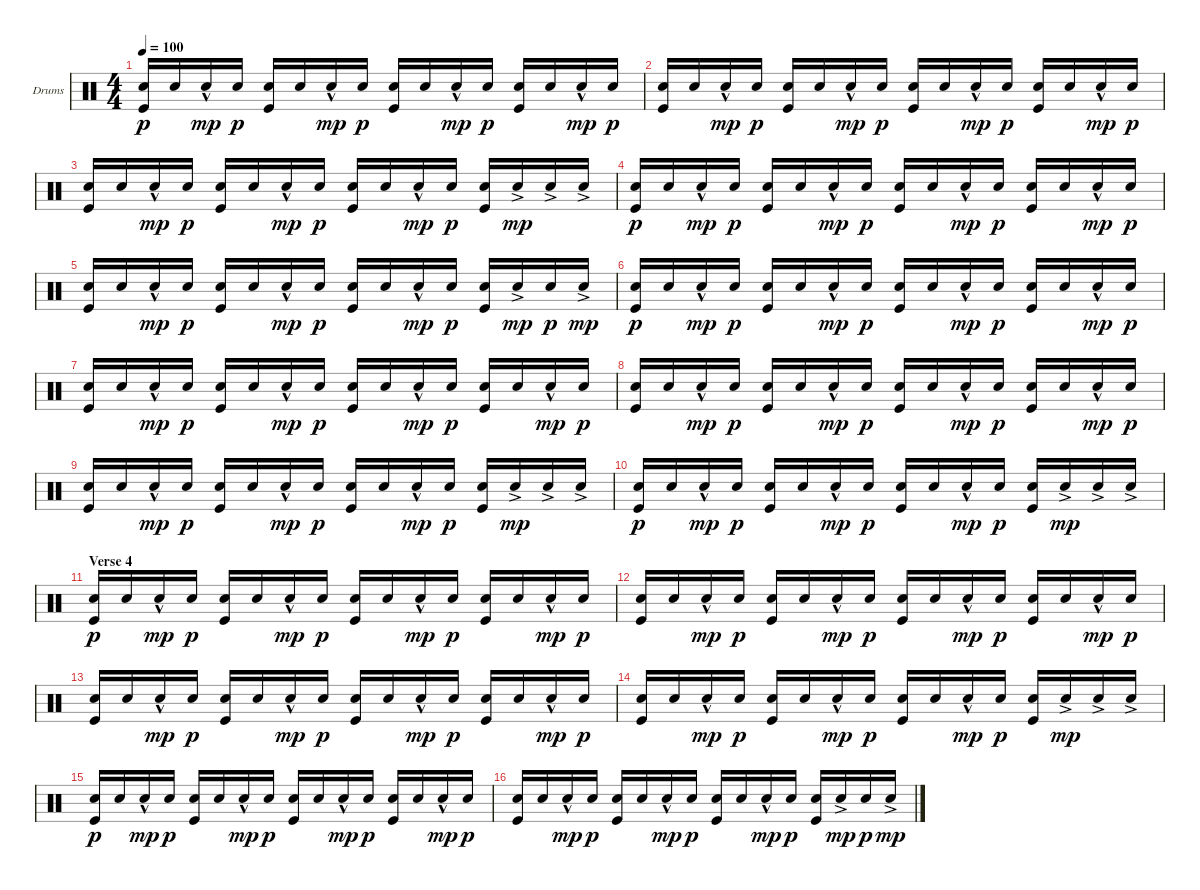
\defaultSystemsLayout 4
\bracketExtendMode groupsimilarinstruments
\firstSystemTrackNameOrientation horizontal
\otherSystemsTrackNameOrientation horizontal
\track ("Drumkit" "Drums") {instrument percussion}
\staff {score}
\articulation defaults
\ts (4 4)
\tempo 100
\clef neutral
\ks c
("Snare (hit) 2" "Kick (hit)").16{dy p} "Snare (hit) 2".16 "Snare (hit) 2"{hac}.16{dy mp} "Snare (hit) 2".16{dy p} ("Snare (hit) 2" "Kick (hit)").16 "Snare (hit) 2".16 "Snare (hit) 2"{hac}.16{dy mp} "Snare (hit) 2".16{dy p} ("Snare (hit) 2" "Kick (hit)").16 "Snare (hit) 2".16 "Snare (hit) 2"{hac}.16{dy mp} "Snare (hit) 2".16{dy p} ("Snare (hit) 2" "Kick (hit)").16 "Snare (hit) 2".16 "Snare (hit) 2"{hac}.16{dy mp} "Snare (hit) 2".16{dy p} |
("Snare (hit) 2" "Kick (hit)").16 "Snare (hit) 2".16 "Snare (hit) 2"{hac}.16{dy mp} "Snare (hit) 2".16{dy p} ("Snare (hit) 2" "Kick (hit)").16 "Snare (hit) 2".16 "Snare (hit) 2"{hac}.16{dy mp} "Snare (hit) 2".16{dy p} ("Snare (hit) 2" "Kick (hit)").16 "Snare (hit) 2".16 "Snare (hit) 2"{hac}.16{dy mp} "Snare (hit) 2".16{dy p} ("Snare (hit) 2" "Kick (hit)").16 "Snare (hit) 2".16 "Snare (hit) 2"{hac}.16{dy mp} "Snare (hit) 2".16{dy p} |
("Snare (hit) 2" "Kick (hit)").16 "Snare (hit) 2".16 "Snare (hit) 2"{hac}.16{dy mp} "Snare (hit) 2".16{dy p} ("Snare (hit) 2" "Kick (hit)").16 "Snare (hit) 2".16 "Snare (hit) 2"{hac}.16{dy mp} "Snare (hit) 2".16{dy p} ("Snare (hit) 2" "Kick (hit)").16 "Snare (hit) 2".16 "Snare (hit) 2"{hac}.16{dy mp} "Snare (hit) 2".16{dy p} ("Snare (hit) 2" "Kick (hit)").16 "Snare (hit) 2"{ac}.16{dy mp} "Snare (hit) 2"{ac}.16 "Snare (hit) 2"{ac}.16 |
("Snare (hit) 2" "Kick (hit)").16{dy p} "Snare (hit) 2".16 "Snare (hit) 2"{hac}.16{dy mp} "Snare (hit) 2".16{dy p} ("Snare (hit) 2" "Kick (hit)").16 "Snare (hit) 2".16 "Snare (hit) 2"{hac}.16{dy mp} "Snare (hit) 2".16{dy p} ("Snare (hit) 2" "Kick (hit)").16 "Snare (hit) 2".16 "Snare (hit) 2"{hac}.16{dy mp} "Snare (hit) 2".16{dy p} ("Snare (hit) 2" "Kick (hit)").16 "Snare (hit) 2".16 "Snare (hit) 2"{hac}.16{dy mp} "Snare (hit) 2".16{dy p} |
("Snare (hit) 2" "Kick (hit)").16 "Snare (hit) 2".16 "Snare (hit) 2"{hac}.16{dy mp} "Snare (hit) 2".16{dy p} ("Snare (hit) 2" "Kick (hit)").16 "Snare (hit) 2".16 "Snare (hit) 2"{hac}.16{dy mp} "Snare (hit) 2".16{dy p} ("Snare (hit) 2" "Kick (hit)").16 "Snare (hit) 2".16 "Snare (hit) 2"{hac}.16{dy mp} "Snare (hit) 2".16{dy p} ("Snare (hit) 2" "Kick (hit)").16 "Snare (hit) 2"{ac}.16{dy mp} "Snare (hit) 2".16{dy p} "Snare (hit) 2"{ac}.16{dy mp} |
("Snare (hit) 2" "Kick (hit)").16{dy p} "Snare (hit) 2".16 "Snare (hit) 2"{hac}.16{dy mp} "Snare (hit) 2".16{dy p} ("Snare (hit) 2" "Kick (hit)").16 "Snare (hit) 2".16 "Snare (hit) 2"{hac}.16{dy mp} "Snare (hit) 2".16{dy p} ("Snare (hit) 2" "Kick (hit)").16 "Snare (hit) 2".16 "Snare (hit) 2"{hac}.16{dy mp} "Snare (hit) 2".16{dy p} ("Snare (hit) 2" "Kick (hit)").16 "Snare (hit) 2".16 "Snare (hit) 2"{hac}.16{dy mp} "Snare (hit) 2".16{dy p} |
("Snare (hit) 2" "Kick (hit)").16 "Snare (hit) 2".16 "Snare (hit) 2"{hac}.16{dy mp} "Snare (hit) 2".16{dy p} ("Snare (hit) 2" "Kick (hit)").16 "Snare (hit) 2".16 "Snare (hit) 2"{hac}.16{dy mp} "Snare (hit) 2".16{dy p} ("Snare (hit) 2" "Kick (hit)").16 "Snare (hit) 2".16 "Snare (hit) 2"{hac}.16{dy mp} "Snare (hit) 2".16{dy p} ("Snare (hit) 2" "Kick (hit)").16 "Snare (hit) 2".16 "Snare (hit) 2"{hac}.16{dy mp} "Snare (hit) 2".16{dy p} |
("Snare (hit) 2" "Kick (hit)").16 "Snare (hit) 2".16 "Snare (hit) 2"{hac}.16{dy mp} "Snare (hit) 2".16{dy p} ("Snare (hit) 2" "Kick (hit)").16 "Snare (hit) 2".16 "Snare (hit) 2"{hac}.16{dy mp} "Snare (hit) 2".16{dy p} ("Snare (hit) 2" "Kick (hit)").16 "Snare (hit) 2".16 "Snare (hit) 2"{hac}.16{dy mp} "Snare (hit) 2".16{dy p} ("Snare (hit) 2" "Kick (hit)").16 "Snare (hit) 2".16 "Snare (hit) 2"{hac}.16{dy mp} "Snare (hit) 2".16{dy p} |
("Snare (hit) 2" "Kick (hit)").16 "Snare (hit) 2".16 "Snare (hit) 2"{hac}.16{dy mp} "Snare (hit) 2".16{dy p} ("Snare (hit) 2" "Kick (hit)").16 "Snare (hit) 2".16 "Snare (hit) 2"{hac}.16{dy mp} "Snare (hit) 2".16{dy p} ("Snare (hit) 2" "Kick (hit)").16 "Snare (hit) 2".16 "Snare (hit) 2"{hac}.16{dy mp} "Snare (hit) 2".16{dy p} ("Snare (hit) 2" "Kick (hit)").16 "Snare (hit) 2"{ac}.16{dy mp} "Snare (hit) 2"{ac}.16 "Snare (hit) 2"{ac}.16 |
("Snare (hit) 2" "Kick (hit)").16{dy p} "Snare (hit) 2".16 "Snare (hit) 2"{hac}.16{dy mp} "Snare (hit) 2".16{dy p} ("Snare (hit) 2" "Kick (hit)").16 "Snare (hit) 2".16 "Snare (hit) 2"{hac}.16{dy mp} "Snare (hit) 2".16{dy p} ("Snare (hit) 2" "Kick (hit)").16 "Snare (hit) 2".16 "Snare (hit) 2"{hac}.16{dy mp} "Snare (hit) 2".16{dy p} ("Snare (hit) 2" "Kick (hit)").16 "Snare (hit) 2"{ac}.16{dy mp} "Snare (hit) 2"{ac}.16 "Snare (hit) 2"{ac}.16 |
\section ("" "Verse 4")
("Snare (hit) 2" "Kick (hit)").16{dy p} "Snare (hit) 2".16 "Snare (hit) 2"{hac}.16{dy mp} "Snare (hit) 2".16{dy p} ("Snare (hit) 2" "Kick (hit)").16 "Snare (hit) 2".16 "Snare (hit) 2"{hac}.16{dy mp} "Snare (hit) 2".16{dy p} ("Snare (hit) 2" "Kick (hit)").16 "Snare (hit) 2".16 "Snare (hit) 2"{hac}.16{dy mp} "Snare (hit) 2".16{dy p} ("Snare (hit) 2" "Kick (hit)").16 "Snare (hit) 2".16 "Snare (hit) 2"{hac}.16{dy mp} "Snare (hit) 2".16{dy p} |
("Snare (hit) 2" "Kick (hit)").16 "Snare (hit) 2".16 "Snare (hit) 2"{hac}.16{dy mp} "Snare (hit) 2".16{dy p} ("Snare (hit) 2" "Kick (hit)").16 "Snare (hit) 2".16 "Snare (hit) 2"{hac}.16{dy mp} "Snare (hit) 2".16{dy p} ("Snare (hit) 2" "Kick (hit)").16 "Snare (hit) 2".16 "Snare (hit) 2"{hac}.16{dy mp} "Snare (hit) 2".16{dy p} ("Snare (hit) 2" "Kick (hit)").16 "Snare (hit) 2".16 "Snare (hit) 2"{hac}.16{dy mp} "Snare (hit) 2".16{dy p} |
("Snare (hit) 2" "Kick (hit)").16 "Snare (hit) 2".16 "Snare (hit) 2"{hac}.16{dy mp} "Snare (hit) 2".16{dy p} ("Snare (hit) 2" "Kick (hit)").16 "Snare (hit) 2".16 "Snare (hit) 2"{hac}.16{dy mp} "Snare (hit) 2".16{dy p} ("Snare (hit) 2" "Kick (hit)").16 "Snare (hit) 2".16 "Snare (hit) 2"{hac}.16{dy mp} "Snare (hit) 2".16{dy p} ("Snare (hit) 2" "Kick (hit)").16 "Snare (hit) 2".16 "Snare (hit) 2"{hac}.16{dy mp} "Snare (hit) 2".16{dy p} |
("Snare (hit) 2" "Kick (hit)").16 "Snare (hit) 2".16 "Snare (hit) 2"{hac}.16{dy mp} "Snare (hit) 2".16{dy p} ("Snare (hit) 2" "Kick (hit)").16 "Snare (hit) 2".16 "Snare (hit) 2"{hac}.16{dy mp} "Snare (hit) 2".16{dy p} ("Snare (hit) 2" "Kick (hit)").16 "Snare (hit) 2".16 "Snare (hit) 2"{hac}.16{dy mp} "Snare (hit) 2".16{dy p} ("Snare (hit) 2" "Kick (hit)").16 "Snare (hit) 2"{ac}.16{dy mp} "Snare (hit) 2"{ac}.16 "Snare (hit) 2"{ac}.16 |
("Snare (hit) 2" "Kick (hit)").16{dy p} "Snare (hit) 2".16 "Snare (hit) 2"{hac}.16{dy mp} "Snare (hit) 2".16{dy p} ("Snare (hit) 2" "Kick (hit)").16 "Snare (hit) 2".16 "Snare (hit) 2"{hac}.16{dy mp} "Snare (hit) 2".16{dy p} ("Snare (hit) 2" "Kick (hit)").16 "Snare (hit) 2".16 "Snare (hit) 2"{hac}.16{dy mp} "Snare (hit) 2".16{dy p} ("Snare (hit) 2" "Kick (hit)").16 "Snare (hit) 2".16 "Snare (hit) 2"{hac}.16{dy mp} "Snare (hit) 2".16{dy p} |
("Snare (hit) 2" "Kick (hit)").16 "Snare (hit) 2".16 "Snare (hit) 2"{hac}.16{dy mp} "Snare (hit) 2".16{dy p} ("Snare (hit) 2" "Kick (hit)").16 "Snare (hit) 2".16 "Snare (hit) 2"{hac}.16{dy mp} "Snare (hit) 2".16{dy p} ("Snare (hit) 2" "Kick (hit)").16 "Snare (hit) 2".16 "Snare (hit) 2"{hac}.16{dy mp} "Snare (hit) 2".16{dy p} ("Snare (hit) 2" "Kick (hit)").16 "Snare (hit) 2"{ac}.16{dy mp} "Snare (hit) 2".16{dy p} "Snare (hit) 2"{ac}.16{dy mp}
